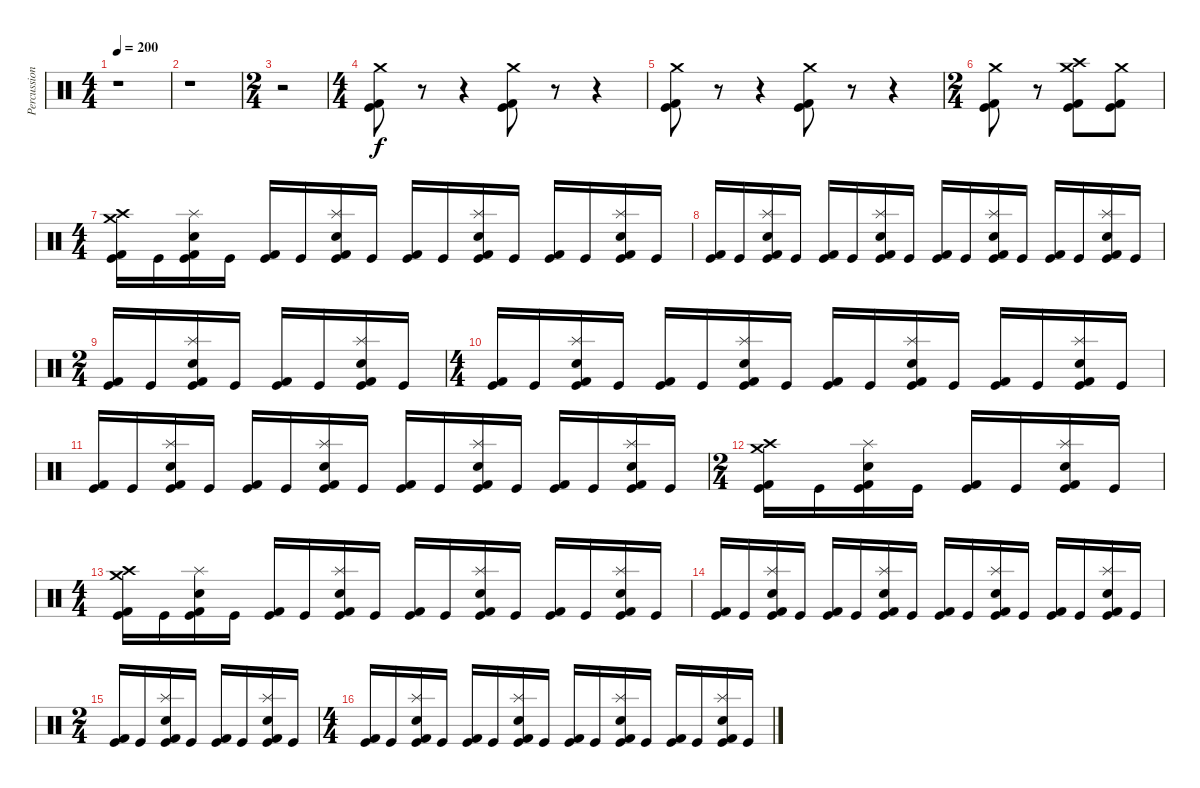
\track ("Percussion" "Percussion") {instrument percussion}
\staff {score}
\articulation defaults
\ts (4 4)
\tempo 200
\clef neutral
\ks c
r.1{dy f} |
r.1 |
\ts (2 4)
r.2 |
\ts (4 4)
("Crash medium (hit)" "Kick (hit) 2" "Kick (hit)").8 r.8 r.4 ("Crash medium (hit)" "Kick (hit) 2" "Kick (hit)").8 r.8 r.4 |
("Crash medium (hit)" "Kick (hit) 2" "Kick (hit)").8 r.8 r.4 ("Crash medium (hit)" "Kick (hit) 2" "Kick (hit)").8 r.8 r.4 |
\ts (2 4)
("Crash medium (hit)" "Kick (hit) 2" "Kick (hit)").8 r.8 ("Crash high (hit)" "Crash medium (hit)" "Kick (hit) 2" "Kick (hit)").8 ("Crash medium (hit)" "Kick (hit) 2" "Kick (hit)").8 |
\ts (4 4)
("Crash high (hit)" "Crash medium (hit)" "Kick (hit) 2" "Kick (hit)").16 "Kick (hit)".16 ("Splash (hit)" "Snare (hit) 2" "Kick (hit) 2" "Kick (hit)").16 "Kick (hit)".16 ("Kick (hit) 2" "Kick (hit)").16 "Kick (hit)".16 ("Splash (hit)" "Snare (hit) 2" "Kick (hit) 2" "Kick (hit)").16 "Kick (hit)".16 ("Kick (hit) 2" "Kick (hit)").16 "Kick (hit)".16 ("Splash (hit)" "Snare (hit) 2" "Kick (hit) 2" "Kick (hit)").16 "Kick (hit)".16 ("Kick (hit) 2" "Kick (hit)").16 "Kick (hit)".16 ("Splash (hit)" "Snare (hit) 2" "Kick (hit) 2" "Kick (hit)").16 "Kick (hit)".16 |
("Kick (hit) 2" "Kick (hit)").16 "Kick (hit)".16 ("Splash (hit)" "Snare (hit) 2" "Kick (hit) 2" "Kick (hit)").16 "Kick (hit)".16 ("Kick (hit) 2" "Kick (hit)").16 "Kick (hit)".16 ("Splash (hit)" "Snare (hit) 2" "Kick (hit) 2" "Kick (hit)").16 "Kick (hit)".16 ("Kick (hit) 2" "Kick (hit)").16 "Kick (hit)".16 ("Splash (hit)" "Snare (hit) 2" "Kick (hit) 2" "Kick (hit)").16 "Kick (hit)".16 ("Kick (hit) 2" "Kick (hit)").16 "Kick (hit)".16 ("Splash (hit)" "Snare (hit) 2" "Kick (hit) 2" "Kick (hit)").16 "Kick (hit)".16 |
\ts (2 4)
("Kick (hit) 2" "Kick (hit)").16 "Kick (hit)".16 ("Splash (hit)" "Snare (hit) 2" "Kick (hit) 2" "Kick (hit)").16 "Kick (hit)".16 ("Kick (hit) 2" "Kick (hit)").16 "Kick (hit)".16 ("Splash (hit)" "Snare (hit) 2" "Kick (hit) 2" "Kick (hit)").16 "Kick (hit)".16 |
\ts (4 4)
("Kick (hit) 2" "Kick (hit)").16 "Kick (hit)".16 ("Splash (hit)" "Snare (hit) 2" "Kick (hit) 2" "Kick (hit)").16 "Kick (hit)".16 ("Kick (hit) 2" "Kick (hit)").16 "Kick (hit)".16 ("Splash (hit)" "Snare (hit) 2" "Kick (hit) 2" "Kick (hit)").16 "Kick (hit)".16 ("Kick (hit) 2" "Kick (hit)").16 "Kick (hit)".16 ("Splash (hit)" "Snare (hit) 2" "Kick (hit) 2" "Kick (hit)").16 "Kick (hit)".16 ("Kick (hit) 2" "Kick (hit)").16 "Kick (hit)".16 ("Splash (hit)" "Snare (hit) 2" "Kick (hit) 2" "Kick (hit)").16 "Kick (hit)".16 |
("Kick (hit) 2" "Kick (hit)").16 "Kick (hit)".16 ("Splash (hit)" "Snare (hit) 2" "Kick (hit) 2" "Kick (hit)").16 "Kick (hit)".16 ("Kick (hit) 2" "Kick (hit)").16 "Kick (hit)".16 ("Splash (hit)" "Snare (hit) 2" "Kick (hit) 2" "Kick (hit)").16 "Kick (hit)".16 ("Kick (hit) 2" "Kick (hit)").16 "Kick (hit)".16 ("Splash (hit)" "Snare (hit) 2" "Kick (hit) 2" "Kick (hit)").16 "Kick (hit)".16 ("Kick (hit) 2" "Kick (hit)").16 "Kick (hit)".16 ("Splash (hit)" "Snare (hit) 2" "Kick (hit) 2" "Kick (hit)").16 "Kick (hit)".16 |
\ts (2 4)
("Crash high (hit)" "Crash medium (hit)" "Kick (hit) 2" "Kick (hit)").16 "Kick (hit)".16 ("Splash (hit)" "Snare (hit) 2" "Kick (hit) 2" "Kick (hit)").16 "Kick (hit)".16 ("Kick (hit) 2" "Kick (hit)").16 "Kick (hit)".16 ("Splash (hit)" "Snare (hit) 2" "Kick (hit) 2" "Kick (hit)").16 "Kick (hit)".16 |
\ts (4 4)
("Crash high (hit)" "Crash medium (hit)" "Kick (hit) 2" "Kick (hit)").16 "Kick (hit)".16 ("Splash (hit)" "Snare (hit) 2" "Kick (hit) 2" "Kick (hit)").16 "Kick (hit)".16 ("Kick (hit) 2" "Kick (hit)").16 "Kick (hit)".16 ("Splash (hit)" "Snare (hit) 2" "Kick (hit) 2" "Kick (hit)").16 "Kick (hit)".16 ("Kick (hit) 2" "Kick (hit)").16 "Kick (hit)".16 ("Splash (hit)" "Snare (hit) 2" "Kick (hit) 2" "Kick (hit)").16 "Kick (hit)".16 ("Kick (hit) 2" "Kick (hit)").16 "Kick (hit)".16 ("Splash (hit)" "Snare (hit) 2" "Kick (hit) 2" "Kick (hit)").16 "Kick (hit)".16 |
("Kick (hit) 2" "Kick (hit)").16 "Kick (hit)".16 ("Splash (hit)" "Snare (hit) 2" "Kick (hit) 2" "Kick (hit)").16 "Kick (hit)".16 ("Kick (hit) 2" "Kick (hit)").16 "Kick (hit)".16 ("Splash (hit)" "Snare (hit) 2" "Kick (hit) 2" "Kick (hit)").16 "Kick (hit)".16 ("Kick (hit) 2" "Kick (hit)").16 "Kick (hit)".16 ("Splash (hit)" "Snare (hit) 2" "Kick (hit) 2" "Kick (hit)").16 "Kick (hit)".16 ("Kick (hit) 2" "Kick (hit)").16 "Kick (hit)".16 ("Splash (hit)" "Snare (hit) 2" "Kick (hit) 2" "Kick (hit)").16 "Kick (hit)".16 |
\ts (2 4)
("Kick (hit) 2" "Kick (hit)").16 "Kick (hit)".16 ("Splash (hit)" "Snare (hit) 2" "Kick (hit) 2" "Kick (hit)").16 "Kick (hit)".16 ("Kick (hit) 2" "Kick (hit)").16 "Kick (hit)".16 ("Splash (hit)" "Snare (hit) 2" "Kick (hit) 2" "Kick (hit)").16 "Kick (hit)".16 |
\ts (4 4)
("Kick (hit) 2" "Kick (hit)").16 "Kick (hit)".16 ("Splash (hit)" "Snare (hit) 2" "Kick (hit) 2" "Kick (hit)").16 "Kick (hit)".16 ("Kick (hit) 2" "Kick (hit)").16 "Kick (hit)".16 ("Splash (hit)" "Snare (hit) 2" "Kick (hit) 2" "Kick (hit)").16 "Kick (hit)".16 ("Kick (hit) 2" "Kick (hit)").16 "Kick (hit)".16 ("Splash (hit)" "Snare (hit) 2" "Kick (hit) 2" "Kick (hit)").16 "Kick (hit)".16 ("Kick (hit) 2" "Kick (hit)").16 "Kick (hit)".16 ("Splash (hit)" "Snare (hit) 2" "Kick (hit) 2" "Kick (hit)").16 "Kick (hit)".16
